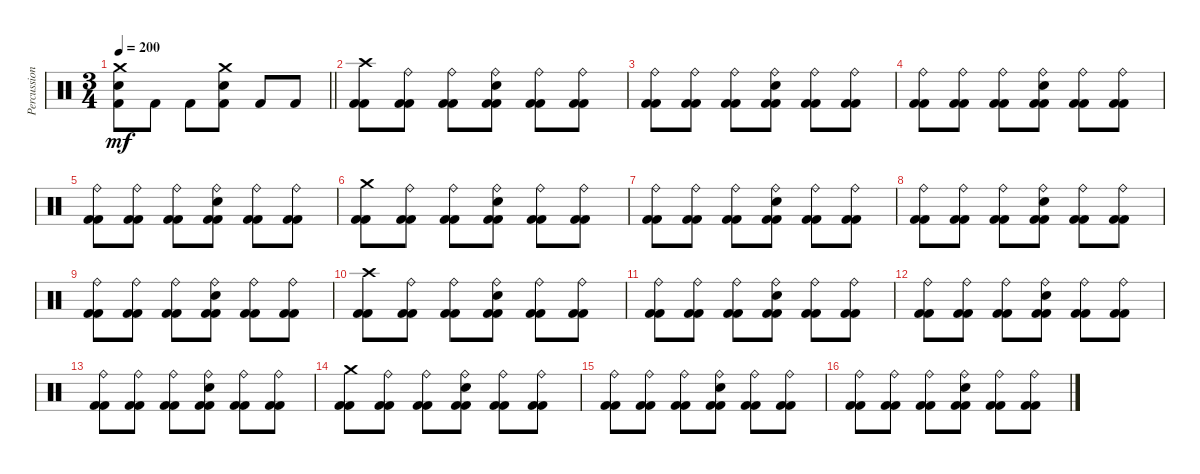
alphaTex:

\track ("Percussion" "Percussion") {instrument percussion}
\staff {score}
\articulation defaults
\ts (3 4)
\tempo 200
\clef neutral
\barLineRight lightlight
\ks c
("Crash medium (hit)" "Electric Snare (hit)" "Kick (hit) 2").8{dy mf} "Kick (hit) 2".8 "Kick (hit) 2".8 ("Crash medium (hit)" "Electric Snare (hit)" "Kick (hit) 2").8 "Kick (hit) 2".8 "Kick (hit) 2".8 |
("Crash high (hit)" "Kick (hit) 2" "Kick (hit) 2").8 ("Ride (bell)" "Kick (hit) 2" "Kick (hit) 2").8 ("Ride (bell)" "Kick (hit) 2" "Kick (hit) 2").8 ("Ride (bell)" "Electric Snare (hit)" "Kick (hit) 2" "Kick (hit) 2").8 ("Ride (bell)" "Kick (hit) 2" "Kick (hit) 2").8 ("Ride (bell)" "Kick (hit) 2" "Kick (hit) 2").8 |
("Ride (bell)" "Kick (hit) 2" "Kick (hit) 2").8 ("Ride (bell)" "Kick (hit) 2" "Kick (hit) 2").8 ("Ride (bell)" "Kick (hit) 2" "Kick (hit) 2").8 ("Ride (bell)" "Electric Snare (hit)" "Kick (hit) 2" "Kick (hit) 2").8 ("Ride (bell)" "Kick (hit) 2" "Kick (hit) 2").8 ("Ride (bell)" "Kick (hit) 2" "Kick (hit) 2").8 |
("Ride (bell)" "Kick (hit) 2" "Kick (hit) 2").8 ("Ride (bell)" "Kick (hit) 2" "Kick (hit) 2").8 ("Ride (bell)" "Kick (hit) 2" "Kick (hit) 2").8 ("Ride (bell)" "Electric Snare (hit)" "Kick (hit) 2" "Kick (hit) 2").8 ("Ride (bell)" "Kick (hit) 2" "Kick (hit) 2").8 ("Ride (bell)" "Kick (hit) 2" "Kick (hit) 2").8 |
("Ride (bell)" "Kick (hit) 2" "Kick (hit) 2").8 ("Ride (bell)" "Kick (hit) 2" "Kick (hit) 2").8 ("Ride (bell)" "Kick (hit) 2" "Kick (hit) 2").8 ("Ride (bell)" "Electric Snare (hit)" "Kick (hit) 2" "Kick (hit) 2").8 ("Ride (bell)" "Kick (hit) 2" "Kick (hit) 2").8 ("Ride (bell)" "Kick (hit) 2" "Kick (hit) 2").8 |
("Crash medium (hit)" "Kick (hit) 2" "Kick (hit) 2").8 ("Ride (bell)" "Kick (hit) 2" "Kick (hit) 2").8 ("Ride (bell)" "Kick (hit) 2" "Kick (hit) 2").8 ("Ride (bell)" "Electric Snare (hit)" "Kick (hit) 2" "Kick (hit) 2").8 ("Ride (bell)" "Kick (hit) 2" "Kick (hit) 2").8 ("Ride (bell)" "Kick (hit) 2" "Kick (hit) 2").8 |
("Ride (bell)" "Kick (hit) 2" "Kick (hit) 2").8 ("Ride (bell)" "Kick (hit) 2" "Kick (hit) 2").8 ("Ride (bell)" "Kick (hit) 2" "Kick (hit) 2").8 ("Ride (bell)" "Electric Snare (hit)" "Kick (hit) 2" "Kick (hit) 2").8 ("Ride (bell)" "Kick (hit) 2" "Kick (hit) 2").8 ("Ride (bell)" "Kick (hit) 2" "Kick (hit) 2").8 |
("Ride (bell)" "Kick (hit) 2" "Kick (hit) 2").8 ("Ride (bell)" "Kick (hit) 2" "Kick (hit) 2").8 ("Ride (bell)" "Kick (hit) 2" "Kick (hit) 2").8 ("Ride (bell)" "Electric Snare (hit)" "Kick (hit) 2" "Kick (hit) 2").8 ("Ride (bell)" "Kick (hit) 2" "Kick (hit) 2").8 ("Ride (bell)" "Kick (hit) 2" "Kick (hit) 2").8 |
("Ride (bell)" "Kick (hit) 2" "Kick (hit) 2").8 ("Ride (bell)" "Kick (hit) 2" "Kick (hit) 2").8 ("Ride (bell)" "Kick (hit) 2" "Kick (hit) 2").8 ("Ride (bell)" "Electric Snare (hit)" "Kick (hit) 2" "Kick (hit) 2").8 ("Ride (bell)" "Kick (hit) 2" "Kick (hit) 2").8 ("Ride (bell)" "Kick (hit) 2" "Kick (hit) 2").8 |
("Crash high (hit)" "Kick (hit) 2" "Kick (hit) 2").8 ("Ride (bell)" "Kick (hit) 2" "Kick (hit) 2").8 ("Ride (bell)" "Kick (hit) 2" "Kick (hit) 2").8 ("Ride (bell)" "Electric Snare (hit)" "Kick (hit) 2" "Kick (hit) 2").8 ("Ride (bell)" "Kick (hit) 2" "Kick (hit) 2").8 ("Ride (bell)" "Kick (hit) 2" "Kick (hit) 2").8 |
("Ride (bell)" "Kick (hit) 2" "Kick (hit) 2").8 ("Ride (bell)" "Kick (hit) 2" "Kick (hit) 2").8 ("Ride (bell)" "Kick (hit) 2" "Kick (hit) 2").8 ("Ride (bell)" "Electric Snare (hit)" "Kick (hit) 2" "Kick (hit) 2").8 ("Ride (bell)" "Kick (hit) 2" "Kick (hit) 2").8 ("Ride (bell)" "Kick (hit) 2" "Kick (hit) 2").8 |
("Ride (bell)" "Kick (hit) 2" "Kick (hit) 2").8 ("Ride (bell)" "Kick (hit) 2" "Kick (hit) 2").8 ("Ride (bell)" "Kick (hit) 2" "Kick (hit) 2").8 ("Ride (bell)" "Electric Snare (hit)" "Kick (hit) 2" "Kick (hit) 2").8 ("Ride (bell)" "Kick (hit) 2" "Kick (hit) 2").8 ("Ride (bell)" "Kick (hit) 2" "Kick (hit) 2").8 |
("Ride (bell)" "Kick (hit) 2" "Kick (hit) 2").8 ("Ride (bell)" "Kick (hit) 2" "Kick (hit) 2").8 ("Ride (bell)" "Kick (hit) 2" "Kick (hit) 2").8 ("Ride (bell)" "Electric Snare (hit)" "Kick (hit) 2" "Kick (hit) 2").8 ("Ride (bell)" "Kick (hit) 2" "Kick (hit) 2").8 ("Ride (bell)" "Kick (hit) 2" "Kick (hit) 2").8 |
("Crash medium (hit)" "Kick (hit) 2" "Kick (hit) 2").8 ("Ride (bell)" "Kick (hit) 2" "Kick (hit) 2").8 ("Ride (bell)" "Kick (hit) 2" "Kick (hit) 2").8 ("Ride (bell)" "Electric Snare (hit)" "Kick (hit) 2" "Kick (hit) 2").8 ("Ride (bell)" "Kick (hit) 2" "Kick (hit) 2").8 ("Ride (bell)" "Kick (hit) 2" "Kick (hit) 2").8 |
("Ride (bell)" "Kick (hit) 2" "Kick (hit) 2").8 ("Ride (bell)" "Kick (hit) 2" "Kick (hit) 2").8 ("Ride (bell)" "Kick (hit) 2" "Kick (hit) 2").8 ("Ride (bell)" "Electric Snare (hit)" "Kick (hit) 2" "Kick (hit) 2").8 ("Ride (bell)" "Kick (hit) 2" "Kick (hit) 2").8 ("Ride (bell)" "Kick (hit) 2" "Kick (hit) 2").8 |
("Ride (bell)" "Kick (hit) 2" "Kick (hit) 2").8 ("Ride (bell)" "Kick (hit) 2" "Kick (hit) 2").8 ("Ride (bell)" "Kick (hit) 2" "Kick (hit) 2").8 ("Ride (bell)" "Electric Snare (hit)" "Kick (hit) 2" "Kick (hit) 2").8 ("Ride (bell)" "Kick (hit) 2" "Kick (hit) 2").8 ("Ride (bell)" "Kick (hit) 2" "Kick (hit) 2").8
